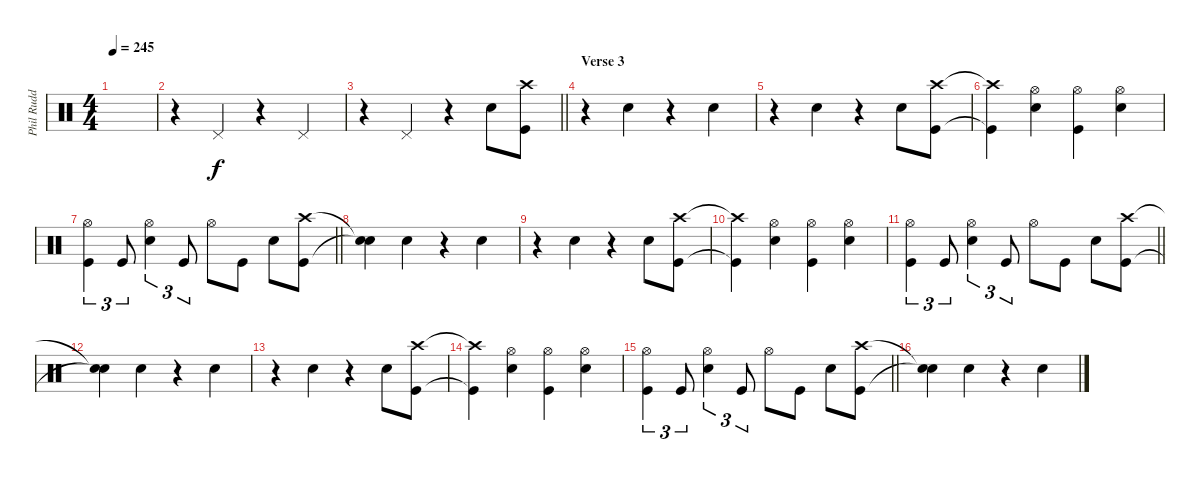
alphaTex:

\track ("Phil Rudd" "Phil Rudd") {instrument percussion}
\staff {score}
\articulation defaults
\ts (4 4)
\tempo 245
\clef neutral
\ks c
|
r.4 "Pedal Hi-Hat (hit)".4 r.4 "Pedal Hi-Hat (hit)".4 |
\barLineRight lightlight
r.4 "Pedal Hi-Hat (hit)".4 r.4 "Snare (hit) 2".8 ("Crash high (hit)" "Kick (hit)").8 |
\section ("" "Verse 3")
r.4 "Snare (hit) 2".4 r.4 "Snare (hit) 2".4 |
r.4 "Snare (hit) 2".4 r.4 "Snare (hit) 2".8 ("Crash high (hit)" "Kick (hit)").8 |
("Crash high (hit)"{t} "Kick (hit)"{t}).4 ("Hi-Hat (open)" "Snare (hit) 2").4 ("Hi-Hat (open)" "Kick (hit)").4 ("Hi-Hat (open)" "Snare (hit) 2").4 |
\barLineRight lightlight
("Hi-Hat (open)" "Kick (hit)").4{tu (3 2)} "Kick (hit)".8{tu (3 2)} ("Hi-Hat (open)" "Snare (hit) 2").4{tu (3 2)} "Kick (hit)".8{tu (3 2)} "Hi-Hat (open)".8 "Kick (hit)".8 "Snare (hit) 2".8 ("Crash high (hit)" "Kick (hit)").8 |
("Snare (hit)"{t} "Snare (hit)"{t}).4 "Snare (hit) 2".4 r.4 "Snare (hit) 2".4 |
r.4 "Snare (hit) 2".4 r.4 "Snare (hit) 2".8 ("Crash high (hit)" "Kick (hit)").8 |
("Crash high (hit)"{t} "Kick (hit)"{t}).4 ("Hi-Hat (open)" "Snare (hit) 2").4 ("Hi-Hat (open)" "Kick (hit)").4 ("Hi-Hat (open)" "Snare (hit) 2").4 |
\barLineRight lightlight
("Hi-Hat (open)" "Kick (hit)").4{tu (3 2)} "Kick (hit)".8{tu (3 2)} ("Hi-Hat (open)" "Snare (hit) 2").4{tu (3 2)} "Kick (hit)".8{tu (3 2)} "Hi-Hat (open)".8 "Kick (hit)".8 "Snare (hit) 2".8 ("Crash high (hit)" "Kick (hit)").8 |
("Snare (hit)"{t} "Snare (hit)"{t}).4 "Snare (hit) 2".4 r.4 "Snare (hit) 2".4 |
r.4 "Snare (hit) 2".4 r.4 "Snare (hit) 2".8 ("Crash high (hit)" "Kick (hit)").8 |
("Crash high (hit)"{t} "Kick (hit)"{t}).4 ("Hi-Hat (open)" "Snare (hit) 2").4 ("Hi-Hat (open)" "Kick (hit)").4 ("Hi-Hat (open)" "Snare (hit) 2").4 |
\barLineRight lightlight
("Hi-Hat (open)" "Kick (hit)").4{tu (3 2)} "Kick (hit)".8{tu (3 2)} ("Hi-Hat (open)" "Snare (hit) 2").4{tu (3 2)} "Kick (hit)".8{tu (3 2)} "Hi-Hat (open)".8 "Kick (hit)".8 "Snare (hit) 2".8 ("Crash high (hit)" "Kick (hit)").8 |
("Snare (hit)"{t} "Snare (hit)"{t}).4 "Snare (hit) 2".4 r.4 "Snare (hit) 2".4
